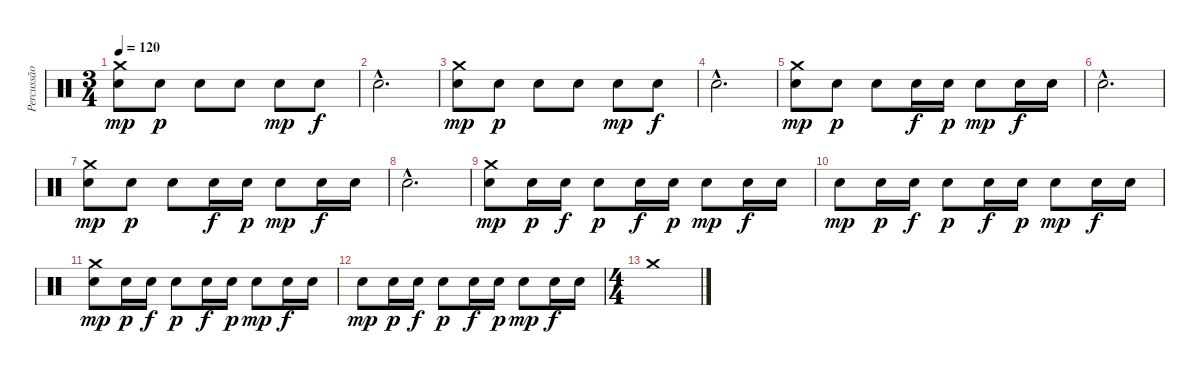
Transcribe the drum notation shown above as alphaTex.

\track ("Percussão" "Percussão") {instrument percussion}
\staff {score}
\articulation defaults
\ts (3 4)
\tempo 120
\clef neutral
\ks c
("Electric Snare (hit)" "Crash medium (hit)").8{dy mp} "Electric Snare (hit)".8{dy p} "Electric Snare (hit)".8 "Electric Snare (hit)".8 "Electric Snare (hit)".8{dy mp} "Electric Snare (hit)".8{dy f} |
"Electric Snare (hit)"{hac}.2{d} |
("Electric Snare (hit)" "Crash medium (hit)").8{dy mp} "Electric Snare (hit)".8{dy p} "Electric Snare (hit)".8 "Electric Snare (hit)".8 "Electric Snare (hit)".8{dy mp} "Electric Snare (hit)".8{dy f} |
"Electric Snare (hit)"{hac}.2{d} |
("Electric Snare (hit)" "Crash medium (hit)").8{dy mp} "Electric Snare (hit)".8{dy p} "Electric Snare (hit)".8 "Electric Snare (hit)".16{dy f} "Electric Snare (hit)".16{dy p} "Electric Snare (hit)".8{dy mp} "Electric Snare (hit)".16{dy f} "Electric Snare (hit)".16 |
"Electric Snare (hit)"{hac}.2{d} |
("Electric Snare (hit)" "Crash medium (hit)").8{dy mp} "Electric Snare (hit)".8{dy p} "Electric Snare (hit)".8 "Electric Snare (hit)".16{dy f} "Electric Snare (hit)".16{dy p} "Electric Snare (hit)".8{dy mp} "Electric Snare (hit)".16{dy f} "Electric Snare (hit)".16 |
"Electric Snare (hit)"{hac}.2{d} |
("Electric Snare (hit)" "Crash medium (hit)").8{dy mp} "Electric Snare (hit)".16{dy p} "Electric Snare (hit)".16{dy f} "Electric Snare (hit)".8{dy p} "Electric Snare (hit)".16{dy f} "Electric Snare (hit)".16{dy p} "Electric Snare (hit)".8{dy mp} "Electric Snare (hit)".16{dy f} "Electric Snare (hit)".16 |
"Electric Snare (hit)".8{dy mp} "Electric Snare (hit)".16{dy p} "Electric Snare (hit)".16{dy f} "Electric Snare (hit)".8{dy p} "Electric Snare (hit)".16{dy f} "Electric Snare (hit)".16{dy p} "Electric Snare (hit)".8{dy mp} "Electric Snare (hit)".16{dy f} "Electric Snare (hit)".16 |
("Electric Snare (hit)" "Crash medium (hit)").8{dy mp} "Electric Snare (hit)".16{dy p} "Electric Snare (hit)".16{dy f} "Electric Snare (hit)".8{dy p} "Electric Snare (hit)".16{dy f} "Electric Snare (hit)".16{dy p} "Electric Snare (hit)".8{dy mp} "Electric Snare (hit)".16{dy f} "Electric Snare (hit)".16 |
"Electric Snare (hit)".8{dy mp} "Electric Snare (hit)".16{dy p} "Electric Snare (hit)".16{dy f} "Electric Snare (hit)".8{dy p} "Electric Snare (hit)".16{dy f} "Electric Snare (hit)".16{dy p} "Electric Snare (hit)".8{dy mp} "Electric Snare (hit)".16{dy f} "Electric Snare (hit)".16 |
\ts (4 4)
"Crash medium (hit)".1
